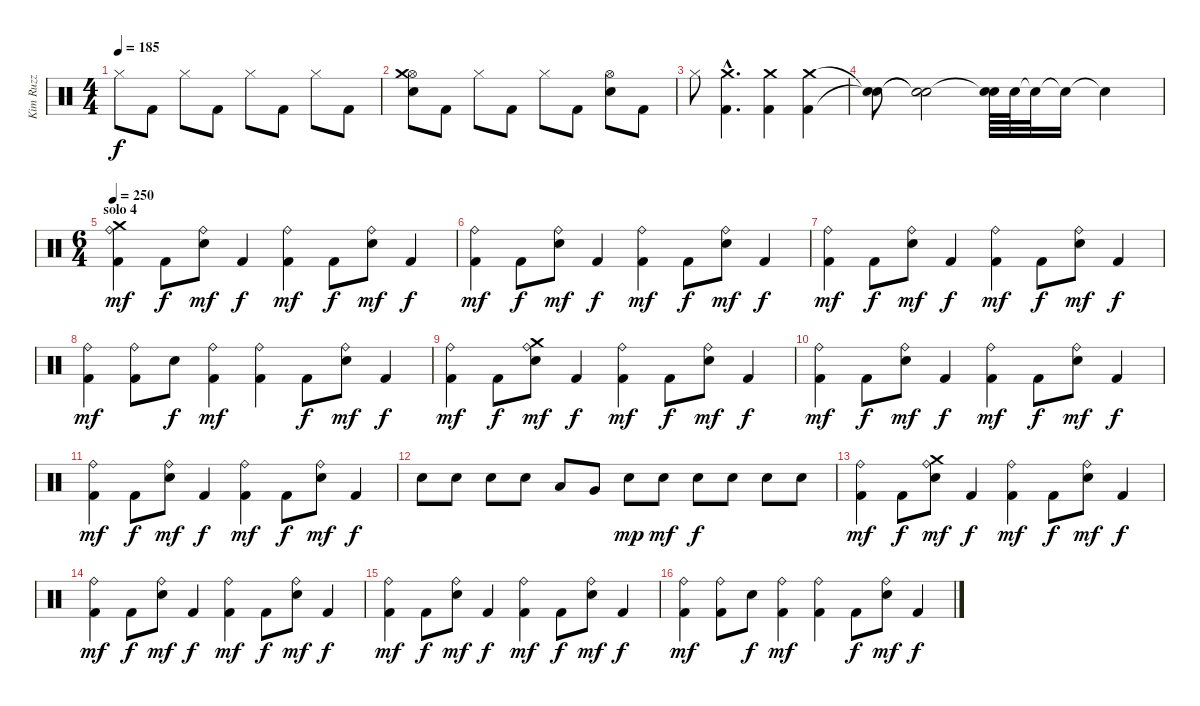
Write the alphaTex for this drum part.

\track ("Kim Ruzz" "Kim Ruzz") {instrument percussion}
\staff {score}
\articulation defaults
\ts (4 4)
\tempo 185
\clef neutral
\ks c "Hi-Hat (closed)".8{dy f} "Kick (hit) 2".8 "Hi-Hat (closed)".8 "Kick (hit) 2".8 "Hi-Hat (closed)".8 "Kick (hit) 2".8 "Hi-Hat (closed)".8 "Kick (hit) 2".8
|
("Hi-Hat (open)" "Crash medium (hit)" "Snare (hit) 2").8 "Kick (hit) 2".8 "Hi-Hat (closed)".8 "Kick (hit) 2".8 "Hi-Hat (closed)".8 "Kick (hit) 2".8 ("Hi-Hat (open)" "Snare (hit) 2").8 "Kick (hit) 2".8 |
"Hi-Hat (closed)".8 ("Kick (hit) 2"{hac} "Crash medium (hit)"{hac}).4{d} ("Kick (hit) 2" "Crash medium (hit)").4 ("Kick (hit) 2" "Crash medium (hit)").4 |
("Snare (hit)"{t} "Snare (hit)"{t}).8 ("Snare (hit)"{t} "Snare (hit)"{t}).2 ("Snare (hit)"{t} "Snare (hit) 2").64 "Snare (hit) 2".64 "Snare (hit)"{t}.32 "Snare (hit)"{t}.16 "Snare (hit)"{t}.4 |
\ts (6 4)
\section ("" "solo 4")
\tempo 250
("Kick (hit) 2" "Ride (bell)" "Crash medium (hit)").4{dy mf} "Kick (hit) 2".8{dy f} ("Ride (bell)" "Snare (hit) 2").8{dy mf} "Kick (hit) 2".4{dy f} ("Kick (hit) 2" "Ride (bell)").4{dy mf} "Kick (hit) 2".8{dy f} ("Ride (bell)" "Snare (hit) 2").8{dy mf} "Kick (hit) 2".4{dy f} |
("Kick (hit) 2" "Ride (bell)").4{dy mf} "Kick (hit) 2".8{dy f} ("Ride (bell)" "Snare (hit) 2").8{dy mf} "Kick (hit) 2".4{dy f} ("Kick (hit) 2" "Ride (bell)").4{dy mf} "Kick (hit) 2".8{dy f} ("Ride (bell)" "Snare (hit) 2").8{dy mf} "Kick (hit) 2".4{dy f} |
("Kick (hit) 2" "Ride (bell)").4{dy mf} "Kick (hit) 2".8{dy f} ("Ride (bell)" "Snare (hit) 2").8{dy mf} "Kick (hit) 2".4{dy f} ("Kick (hit) 2" "Ride (bell)").4{dy mf} "Kick (hit) 2".8{dy f} ("Ride (bell)" "Snare (hit) 2").8{dy mf} "Kick (hit) 2".4{dy f} |
("Kick (hit) 2" "Ride (bell)").4{dy mf} ("Kick (hit) 2" "Ride (bell)").8 "Snare (hit) 2".8{dy f} ("Kick (hit) 2" "Ride (bell)").4{dy mf} ("Kick (hit) 2" "Ride (bell)").4 "Kick (hit) 2".8{dy f} ("Ride (bell)" "Snare (hit) 2").8{dy mf} "Kick (hit) 2".4{dy f} |
("Kick (hit) 2" "Ride (bell)").4{dy mf} "Kick (hit) 2".8{dy f} ("Ride (bell)" "Snare (hit) 2" "Crash medium (hit)").8{dy mf} "Kick (hit) 2".4{dy f} ("Kick (hit) 2" "Ride (bell)").4{dy mf} "Kick (hit) 2".8{dy f} ("Ride (bell)" "Snare (hit) 2").8{dy mf} "Kick (hit) 2".4{dy f} |
("Kick (hit) 2" "Ride (bell)").4{dy mf} "Kick (hit) 2".8{dy f} ("Ride (bell)" "Snare (hit) 2").8{dy mf} "Kick (hit) 2".4{dy f} ("Kick (hit) 2" "Ride (bell)").4{dy mf} "Kick (hit) 2".8{dy f} ("Ride (bell)" "Snare (hit) 2").8{dy mf} "Kick (hit) 2".4{dy f} |
("Kick (hit) 2" "Ride (bell)").4{dy mf} "Kick (hit) 2".8{dy f} ("Ride (bell)" "Snare (hit) 2").8{dy mf} "Kick (hit) 2".4{dy f} ("Kick (hit) 2" "Ride (bell)").4{dy mf} "Kick (hit) 2".8{dy f} ("Ride (bell)" "Snare (hit) 2").8{dy mf} "Kick (hit) 2".4{dy f} |
"Snare (hit) 2".8 "Snare (hit) 2".8 "Snare (hit) 2".8 "Snare (hit) 2".8 "Low Tom (hit)".8 "Very Low Tom (hit)".8 "Snare (hit) 2".8{dy mp} "Snare (hit) 2".8{dy mf} "Snare (hit) 2".8{dy f} "Snare (hit) 2".8 "Snare (hit) 2".8 "Snare (hit) 2".8 |
("Kick (hit) 2" "Ride (bell)").4{dy mf} "Kick (hit) 2".8{dy f} ("Ride (bell)" "Snare (hit) 2" "Crash medium (hit)").8{dy mf} "Kick (hit) 2".4{dy f} ("Kick (hit) 2" "Ride (bell)").4{dy mf} "Kick (hit) 2".8{dy f} ("Ride (bell)" "Snare (hit) 2").8{dy mf} "Kick (hit) 2".4{dy f} |
("Kick (hit) 2" "Ride (bell)").4{dy mf} "Kick (hit) 2".8{dy f} ("Ride (bell)" "Snare (hit) 2").8{dy mf} "Kick (hit) 2".4{dy f} ("Kick (hit) 2" "Ride (bell)").4{dy mf} "Kick (hit) 2".8{dy f} ("Ride (bell)" "Snare (hit) 2").8{dy mf} "Kick (hit) 2".4{dy f} |
("Kick (hit) 2" "Ride (bell)").4{dy mf} "Kick (hit) 2".8{dy f} ("Ride (bell)" "Snare (hit) 2").8{dy mf} "Kick (hit) 2".4{dy f} ("Kick (hit) 2" "Ride (bell)").4{dy mf} "Kick (hit) 2".8{dy f} ("Ride (bell)" "Snare (hit) 2").8{dy mf} "Kick (hit) 2".4{dy f} |
("Kick (hit) 2" "Ride (bell)").4{dy mf} ("Kick (hit) 2" "Ride (bell)").8 "Snare (hit) 2".8{dy f} ("Kick (hit) 2" "Ride (bell)").4{dy mf} ("Kick (hit) 2" "Ride (bell)").4 "Kick (hit) 2".8{dy f} ("Ride (bell)" "Snare (hit) 2").8{dy mf} "Kick (hit) 2".4{dy f}
